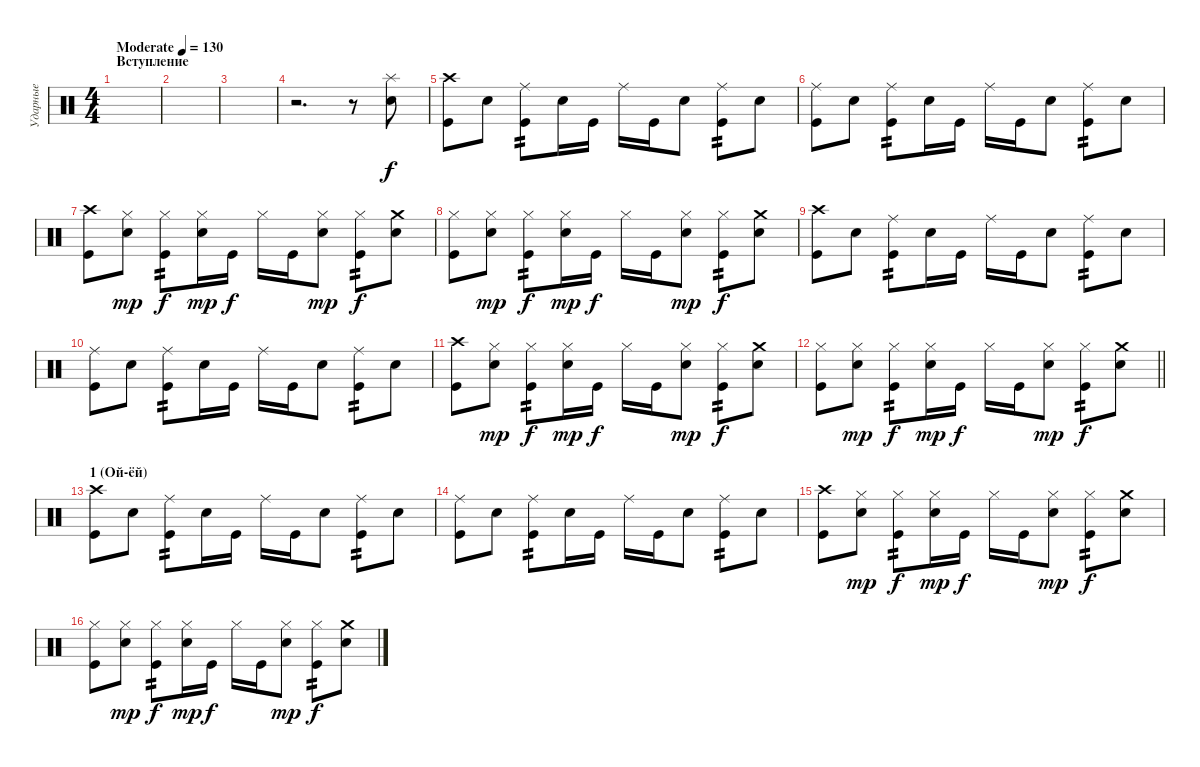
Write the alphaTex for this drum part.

\track ("Ударные" "Ударные") {instrument percussion}
\staff {score}
\articulation defaults
\ts (4 4)
\section ("" "Вступление")
\tempo (130 "Moderate")
\clef neutral
\ks c
|
|
|
r.2{d} r.8 ("Splash (hit)" "Snare (hit) 2").8 |
("Crash high (hit)" "Kick (hit)").8 "Snare (hit) 2".8 ("Ride (middle)" "Kick (hit)").8{tp 2} "Snare (hit) 2".16 "Kick (hit)".16 "Ride (middle)".16 "Kick (hit)".16 "Snare (hit) 2".8 ("Ride (middle)" "Kick (hit)").8{tp 2} "Snare (hit) 2".8 |
("Ride (middle)" "Kick (hit)").8 "Snare (hit) 2".8 ("Ride (middle)" "Kick (hit)").8{tp 2} "Snare (hit) 2".16 "Kick (hit)".16 "Ride (middle)".16 "Kick (hit)".16 "Snare (hit) 2".8 ("Ride (middle)" "Kick (hit)").8{tp 2} "Snare (hit) 2".8 |
("Crash high (hit)" "Kick (hit)").8 ("Hi-Hat (closed)" "Snare (hit) 2").8{dy mp} ("Hi-Hat (closed)" "Kick (hit)").8{tp 2 dy f} ("Hi-Hat (closed)" "Snare (hit) 2").16{dy mp} "Kick (hit)".16{dy f} "Hi-Hat (closed)".16 "Kick (hit)".16 ("Hi-Hat (closed)" "Snare (hit) 2").8{dy mp} ("Hi-Hat (closed)" "Kick (hit)").8{tp 2 dy f} ("Crash medium (hit)" "Snare (hit) 2").8 |
("Hi-Hat (closed)" "Kick (hit)").8 ("Hi-Hat (closed)" "Snare (hit) 2").8{dy mp} ("Hi-Hat (closed)" "Kick (hit)").8{tp 2 dy f} ("Hi-Hat (closed)" "Snare (hit) 2").16{dy mp} "Kick (hit)".16{dy f} "Hi-Hat (closed)".16 "Kick (hit)".16 ("Hi-Hat (closed)" "Snare (hit) 2").8{dy mp} ("Hi-Hat (closed)" "Kick (hit)").8{tp 2 dy f} ("Crash medium (hit)" "Snare (hit) 2").8 |
("Crash high (hit)" "Kick (hit)").8 "Snare (hit) 2".8 ("Ride (middle)" "Kick (hit)").8{tp 2} "Snare (hit) 2".16 "Kick (hit)".16 "Ride (middle)".16 "Kick (hit)".16 "Snare (hit) 2".8 ("Ride (middle)" "Kick (hit)").8{tp 2} "Snare (hit) 2".8 |
("Ride (middle)" "Kick (hit)").8 "Snare (hit) 2".8 ("Ride (middle)" "Kick (hit)").8{tp 2} "Snare (hit) 2".16 "Kick (hit)".16 "Ride (middle)".16 "Kick (hit)".16 "Snare (hit) 2".8 ("Ride (middle)" "Kick (hit)").8{tp 2} "Snare (hit) 2".8 |
("Crash high (hit)" "Kick (hit)").8 ("Hi-Hat (closed)" "Snare (hit) 2").8{dy mp} ("Hi-Hat (closed)" "Kick (hit)").8{tp 2 dy f} ("Hi-Hat (closed)" "Snare (hit) 2").16{dy mp} "Kick (hit)".16{dy f} "Hi-Hat (closed)".16 "Kick (hit)".16 ("Hi-Hat (closed)" "Snare (hit) 2").8{dy mp} ("Hi-Hat (closed)" "Kick (hit)").8{tp 2 dy f} ("Crash medium (hit)" "Snare (hit) 2").8 |
\barLineRight lightlight
("Hi-Hat (closed)" "Kick (hit)").8 ("Hi-Hat (closed)" "Snare (hit) 2").8{dy mp} ("Hi-Hat (closed)" "Kick (hit)").8{tp 2 dy f} ("Hi-Hat (closed)" "Snare (hit) 2").16{dy mp} "Kick (hit)".16{dy f} "Hi-Hat (closed)".16 "Kick (hit)".16 ("Hi-Hat (closed)" "Snare (hit) 2").8{dy mp} ("Hi-Hat (closed)" "Kick (hit)").8{tp 2 dy f} ("Crash medium (hit)" "Snare (hit) 2").8 |
\section ("" "1 (Ой-ёй)")
("Crash high (hit)" "Kick (hit)").8 "Snare (hit) 2".8 ("Ride (middle)" "Kick (hit)").8{tp 2} "Snare (hit) 2".16 "Kick (hit)".16 "Ride (middle)".16 "Kick (hit)".16 "Snare (hit) 2".8 ("Ride (middle)" "Kick (hit)").8{tp 2} "Snare (hit) 2".8 |
("Ride (middle)" "Kick (hit)").8 "Snare (hit) 2".8 ("Ride (middle)" "Kick (hit)").8{tp 2} "Snare (hit) 2".16 "Kick (hit)".16 "Ride (middle)".16 "Kick (hit)".16 "Snare (hit) 2".8 ("Ride (middle)" "Kick (hit)").8{tp 2} "Snare (hit) 2".8 |
("Crash high (hit)" "Kick (hit)").8 ("Hi-Hat (closed)" "Snare (hit) 2").8{dy mp} ("Hi-Hat (closed)" "Kick (hit)").8{tp 2 dy f} ("Hi-Hat (closed)" "Snare (hit) 2").16{dy mp} "Kick (hit)".16{dy f} "Hi-Hat (closed)".16 "Kick (hit)".16 ("Hi-Hat (closed)" "Snare (hit) 2").8{dy mp} ("Hi-Hat (closed)" "Kick (hit)").8{tp 2 dy f} ("Crash medium (hit)" "Snare (hit) 2").8 |
("Hi-Hat (closed)" "Kick (hit)").8 ("Hi-Hat (closed)" "Snare (hit) 2").8{dy mp} ("Hi-Hat (closed)" "Kick (hit)").8{tp 2 dy f} ("Hi-Hat (closed)" "Snare (hit) 2").16{dy mp} "Kick (hit)".16{dy f} "Hi-Hat (closed)".16 "Kick (hit)".16 ("Hi-Hat (closed)" "Snare (hit) 2").8{dy mp} ("Hi-Hat (closed)" "Kick (hit)").8{tp 2 dy f} ("Crash medium (hit)" "Snare (hit) 2").8
